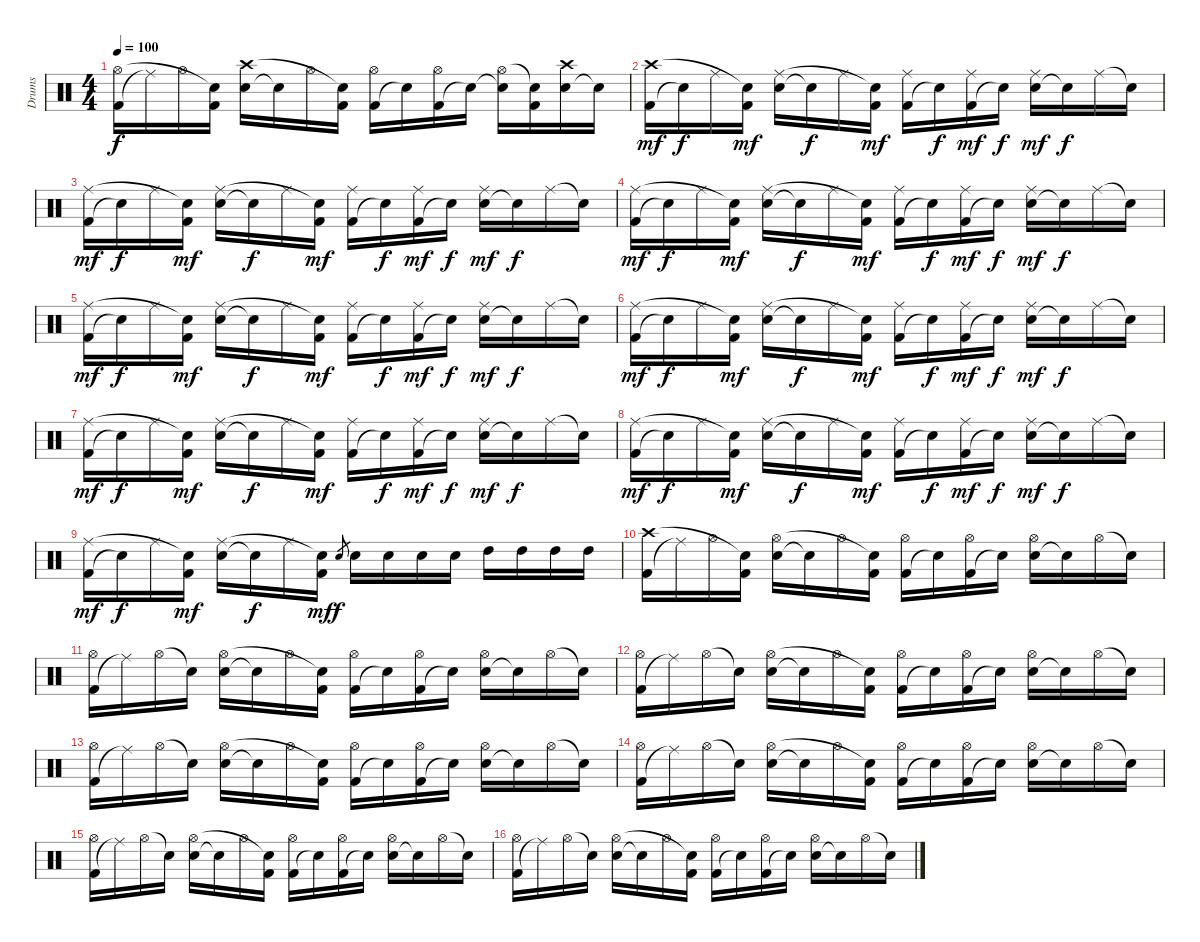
\track ("Drums" "Drums") {instrument percussion}
\staff {score}
\articulation defaults
\ts (4 4)
\tempo 100
\clef neutral
\ks c
("Kick (hit) 2" "Hi-Hat (open)").16{dy f} "Ride (middle)"{t}.16 "Hi-Hat (open)".16 ("Kick (hit) 2" "Snare (hit)"{t}).16 ("Snare (hit) 2" "Crash high (hit)").16 "Snare (hit)"{t}.16 "Hi-Hat (open)".16 ("Kick (hit) 2" "Snare (hit)"{t}).16 ("Kick (hit) 2" "Hi-Hat (open)").16 "Snare (hit)"{t}.16 ("Kick (hit) 2" "Hi-Hat (open)").16 "Snare (hit)"{t}.16 ("Snare (hit) 2"{t} "Hi-Hat (open)").16 ("Kick (hit) 2" "Snare (hit)"{t}).16 ("Snare (hit) 2" "Crash high (hit)").16 "Snare (hit)"{t}.16 |
("Kick (hit) 2" "Crash high (hit)").16{dy mf} "Snare (hit)"{t}.16{dy f} "Ride (middle)".16 ("Kick (hit) 2" "Snare (hit)"{t}).16{dy mf} ("Snare (hit) 2" "Ride (middle)").16 "Snare (hit)"{t}.16{dy f} "Ride (middle)".16 ("Kick (hit) 2" "Snare (hit)"{t}).16{dy mf} ("Kick (hit) 2" "Ride (middle)").16 "Snare (hit)"{t}.16{dy f} ("Kick (hit) 2" "Ride (middle)").16{dy mf} "Snare (hit)"{t}.16{dy f} ("Snare (hit) 2" "Ride (middle)").16{dy mf} "Snare (hit)"{t}.16{dy f} "Ride (middle)".16 "Snare (hit)"{t}.16 |
("Kick (hit) 2" "Ride (middle)").16{dy mf} "Snare (hit)"{t}.16{dy f} "Ride (middle)".16 ("Kick (hit) 2" "Snare (hit)"{t}).16{dy mf} ("Snare (hit) 2" "Ride (middle)").16 "Snare (hit)"{t}.16{dy f} "Ride (middle)".16 ("Kick (hit) 2" "Snare (hit)"{t}).16{dy mf} ("Kick (hit) 2" "Ride (middle)").16 "Snare (hit)"{t}.16{dy f} ("Kick (hit) 2" "Ride (middle)").16{dy mf} "Snare (hit)"{t}.16{dy f} ("Snare (hit) 2" "Ride (middle)").16{dy mf} "Snare (hit)"{t}.16{dy f} "Ride (middle)".16 "Snare (hit)"{t}.16 |
("Kick (hit) 2" "Ride (middle)").16{dy mf} "Snare (hit)"{t}.16{dy f} "Ride (middle)".16 ("Kick (hit) 2" "Snare (hit)"{t}).16{dy mf} ("Snare (hit) 2" "Ride (middle)").16 "Snare (hit)"{t}.16{dy f} "Ride (middle)".16 ("Kick (hit) 2" "Snare (hit)"{t}).16{dy mf} ("Kick (hit) 2" "Ride (middle)").16 "Snare (hit)"{t}.16{dy f} ("Kick (hit) 2" "Ride (middle)").16{dy mf} "Snare (hit)"{t}.16{dy f} ("Snare (hit) 2" "Ride (middle)").16{dy mf} "Snare (hit)"{t}.16{dy f} "Ride (middle)".16 "Snare (hit)"{t}.16 |
("Kick (hit) 2" "Ride (middle)").16{dy mf} "Snare (hit)"{t}.16{dy f} "Ride (middle)".16 ("Kick (hit) 2" "Snare (hit)"{t}).16{dy mf} ("Snare (hit) 2" "Ride (middle)").16 "Snare (hit)"{t}.16{dy f} "Ride (middle)".16 ("Kick (hit) 2" "Snare (hit)"{t}).16{dy mf} ("Kick (hit) 2" "Ride (middle)").16 "Snare (hit)"{t}.16{dy f} ("Kick (hit) 2" "Ride (middle)").16{dy mf} "Snare (hit)"{t}.16{dy f} ("Snare (hit) 2" "Ride (middle)").16{dy mf} "Snare (hit)"{t}.16{dy f} "Ride (middle)".16 "Snare (hit)"{t}.16 |
("Kick (hit) 2" "Ride (middle)").16{dy mf} "Snare (hit)"{t}.16{dy f} "Ride (middle)".16 ("Kick (hit) 2" "Snare (hit)"{t}).16{dy mf} ("Snare (hit) 2" "Ride (middle)").16 "Snare (hit)"{t}.16{dy f} "Ride (middle)".16 ("Kick (hit) 2" "Snare (hit)"{t}).16{dy mf} ("Kick (hit) 2" "Ride (middle)").16 "Snare (hit)"{t}.16{dy f} ("Kick (hit) 2" "Ride (middle)").16{dy mf} "Snare (hit)"{t}.16{dy f} ("Snare (hit) 2" "Ride (middle)").16{dy mf} "Snare (hit)"{t}.16{dy f} "Ride (middle)".16 "Snare (hit)"{t}.16 |
("Kick (hit) 2" "Ride (middle)").16{dy mf} "Snare (hit)"{t}.16{dy f} "Ride (middle)".16 ("Kick (hit) 2" "Snare (hit)"{t}).16{dy mf} ("Snare (hit) 2" "Ride (middle)").16 "Snare (hit)"{t}.16{dy f} "Ride (middle)".16 ("Kick (hit) 2" "Snare (hit)"{t}).16{dy mf} ("Kick (hit) 2" "Ride (middle)").16 "Snare (hit)"{t}.16{dy f} ("Kick (hit) 2" "Ride (middle)").16{dy mf} "Snare (hit)"{t}.16{dy f} ("Snare (hit) 2" "Ride (middle)").16{dy mf} "Snare (hit)"{t}.16{dy f} "Ride (middle)".16 "Snare (hit)"{t}.16 |
("Kick (hit) 2" "Ride (middle)").16{dy mf} "Snare (hit)"{t}.16{dy f} "Ride (middle)".16 ("Kick (hit) 2" "Snare (hit)"{t}).16{dy mf} ("Snare (hit) 2" "Ride (middle)").16 "Snare (hit)"{t}.16{dy f} "Ride (middle)".16 ("Kick (hit) 2" "Snare (hit)"{t}).16{dy mf} ("Kick (hit) 2" "Ride (middle)").16 "Snare (hit)"{t}.16{dy f} ("Kick (hit) 2" "Ride (middle)").16{dy mf} "Snare (hit)"{t}.16{dy f} ("Snare (hit) 2" "Ride (middle)").16{dy mf} "Snare (hit)"{t}.16{dy f} "Ride (middle)".16 "Snare (hit)"{t}.16 |
("Kick (hit) 2" "Ride (middle)").16{dy mf} "Snare (hit)"{t}.16{dy f} "Ride (middle)".16 ("Kick (hit) 2" "Snare (hit)"{t}).16{dy mf} ("Snare (hit) 2" "Ride (middle)").16 "Snare (hit)"{t}.16{dy f} "Ride (middle)".16 ("Kick (hit) 2" "Snare (hit)"{t}).16{dy mf} "Snare (hit) 2".8{gr dy f} "Snare (hit) 2".16 "Snare (hit) 2".16 "Snare (hit) 2".16 "Snare (hit) 2".16 "High Tom (hit)".16 "High Tom (hit)".16 "High Tom (hit)".16 "High Tom (hit)".16 |
("Kick (hit) 2" "Crash high (hit)").16 "Ride (middle)"{t}.16 "Hi-Hat (open)".16 ("Kick (hit) 2" "Snare (hit)"{t}).16 ("Snare (hit) 2" "Hi-Hat (open)").16 "Snare (hit)"{t}.16 "Hi-Hat (open)".16 ("Kick (hit) 2" "Snare (hit)"{t}).16 ("Kick (hit) 2" "Hi-Hat (open)").16 "Snare (hit)"{t}.16 ("Kick (hit) 2" "Hi-Hat (open)").16 "Snare (hit)"{t}.16 ("Snare (hit) 2" "Hi-Hat (open)").16 "Snare (hit)"{t}.16 "Hi-Hat (open)".16 "Snare (hit)"{t}.16 |
("Kick (hit) 2" "Hi-Hat (open)").16 "Ride (middle)"{t}.16 "Hi-Hat (open)".16 "Snare (hit)"{t}.16 ("Snare (hit) 2" "Hi-Hat (open)").16 "Snare (hit)"{t}.16 "Hi-Hat (open)".16 ("Kick (hit) 2" "Snare (hit)"{t}).16 ("Kick (hit) 2" "Hi-Hat (open)").16 "Snare (hit)"{t}.16 ("Kick (hit) 2" "Hi-Hat (open)").16 "Snare (hit)"{t}.16 ("Snare (hit) 2" "Hi-Hat (open)").16 "Snare (hit)"{t}.16 "Hi-Hat (open)".16 "Snare (hit)"{t}.16 |
("Kick (hit) 2" "Hi-Hat (open)").16 "Ride (middle)"{t}.16 "Hi-Hat (open)".16 "Snare (hit)"{t}.16 ("Snare (hit) 2" "Hi-Hat (open)").16 "Snare (hit)"{t}.16 "Hi-Hat (open)".16 ("Kick (hit) 2" "Snare (hit)"{t}).16 ("Kick (hit) 2" "Hi-Hat (open)").16 "Snare (hit)"{t}.16 ("Kick (hit) 2" "Hi-Hat (open)").16 "Snare (hit)"{t}.16 ("Snare (hit) 2" "Hi-Hat (open)").16 "Snare (hit)"{t}.16 "Hi-Hat (open)".16 "Snare (hit)"{t}.16 |
("Kick (hit) 2" "Hi-Hat (open)").16 "Ride (middle)"{t}.16 "Hi-Hat (open)".16 "Snare (hit)"{t}.16 ("Snare (hit) 2" "Hi-Hat (open)").16 "Snare (hit)"{t}.16 "Hi-Hat (open)".16 ("Kick (hit) 2" "Snare (hit)"{t}).16 ("Kick (hit) 2" "Hi-Hat (open)").16 "Snare (hit)"{t}.16 ("Kick (hit) 2" "Hi-Hat (open)").16 "Snare (hit)"{t}.16 ("Snare (hit) 2" "Hi-Hat (open)").16 "Snare (hit)"{t}.16 "Hi-Hat (open)".16 "Snare (hit)"{t}.16 |
("Kick (hit) 2" "Hi-Hat (open)").16 "Ride (middle)"{t}.16 "Hi-Hat (open)".16 "Snare (hit)"{t}.16 ("Snare (hit) 2" "Hi-Hat (open)").16 "Snare (hit)"{t}.16 "Hi-Hat (open)".16 ("Kick (hit) 2" "Snare (hit)"{t}).16 ("Kick (hit) 2" "Hi-Hat (open)").16 "Snare (hit)"{t}.16 ("Kick (hit) 2" "Hi-Hat (open)").16 "Snare (hit)"{t}.16 ("Snare (hit) 2" "Hi-Hat (open)").16 "Snare (hit)"{t}.16 "Hi-Hat (open)".16 "Snare (hit)"{t}.16 |
("Kick (hit) 2" "Hi-Hat (open)").16 "Ride (middle)"{t}.16 "Hi-Hat (open)".16 "Snare (hit)"{t}.16 ("Snare (hit) 2" "Hi-Hat (open)").16 "Snare (hit)"{t}.16 "Hi-Hat (open)".16 ("Kick (hit) 2" "Snare (hit)"{t}).16 ("Kick (hit) 2" "Hi-Hat (open)").16 "Snare (hit)"{t}.16 ("Kick (hit) 2" "Hi-Hat (open)").16 "Snare (hit)"{t}.16 ("Snare (hit) 2" "Hi-Hat (open)").16 "Snare (hit)"{t}.16 "Hi-Hat (open)".16 "Snare (hit)"{t}.16 |
("Kick (hit) 2" "Hi-Hat (open)").16 "Ride (middle)"{t}.16 "Hi-Hat (open)".16 "Snare (hit)"{t}.16 ("Snare (hit) 2" "Hi-Hat (open)").16 "Snare (hit)"{t}.16 "Hi-Hat (open)".16 ("Kick (hit) 2" "Snare (hit)"{t}).16 ("Kick (hit) 2" "Hi-Hat (open)").16 "Snare (hit)"{t}.16 ("Kick (hit) 2" "Hi-Hat (open)").16 "Snare (hit)"{t}.16 ("Snare (hit) 2" "Hi-Hat (open)").16 "Snare (hit)"{t}.16 "Hi-Hat (open)".16 "Snare (hit)"{t}.16
